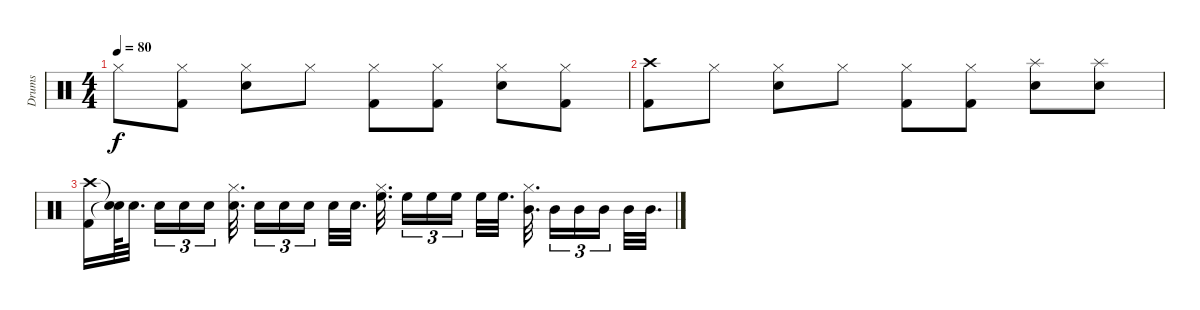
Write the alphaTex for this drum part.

\track ("Drums         " "Drums     ") {instrument percussion}
\staff {score}
\articulation defaults
\ts (4 4)
\tempo 80
\clef neutral
\ks c "Hi-Hat (closed)".8{dy f}
("Kick (hit) 2" "Hi-Hat (closed)").8 ("Snare (hit) 2" "Hi-Hat (closed)").8 "Hi-Hat (closed)".8 ("Kick (hit) 2" "Hi-Hat (closed)").8 ("Kick (hit) 2" "Hi-Hat (closed)").8 ("Snare (hit) 2" "Hi-Hat (closed)").8 ("Kick (hit) 2" "Hi-Hat (closed)").8 |
("Kick (hit) 2" "Crash high (hit)").8 "Hi-Hat (closed)".8 ("Snare (hit) 2" "Hi-Hat (closed)").8 "Hi-Hat (closed)".8 ("Kick (hit) 2" "Hi-Hat (closed)").8 ("Kick (hit) 2" "Hi-Hat (closed)").8 ("Snare (hit) 2" "Splash (hit)").8 ("Snare (hit) 2" "Splash (hit)").8 |
("Kick (hit) 2" "Crash high (hit)").16 ("Snare (hit)"{t} "Snare (hit)"{t}).64 "Snare (hit) 2".32{d beam splitsecondary} "Snare (hit) 2".16{tu (3 2)} "Snare (hit) 2".16{tu (3 2)} "Snare (hit) 2".16{tu (3 2)} ("Snare (hit) 2" "Hi-Hat (closed)").32{d beam splitsecondary} "Snare (hit) 2".16{tu (3 2)} "Snare (hit) 2".16{tu (3 2)} "Snare (hit) 2".16{tu (3 2) beam splitsecondary} "Snare (hit) 2".32 "Snare (hit) 2".32{d} ("High Floor Tom (hit)" "Hi-Hat (closed)").32{d beam splitsecondary} "High Floor Tom (hit)".16{tu (3 2)} "High Floor Tom (hit)".16{tu (3 2)} "High Floor Tom (hit)".16{tu (3 2) beam splitsecondary} "High Floor Tom (hit)".32 "High Floor Tom (hit)".32{d} ("Hi-Hat (closed)" "Mid Tom (hit)").32{d beam splitsecondary} "Mid Tom (hit)".16{tu (3 2)} "Mid Tom (hit)".16{tu (3 2)} "Mid Tom (hit)".16{tu (3 2) beam splitsecondary} "Mid Tom (hit)".32 "Mid Tom (hit)".32{d}
